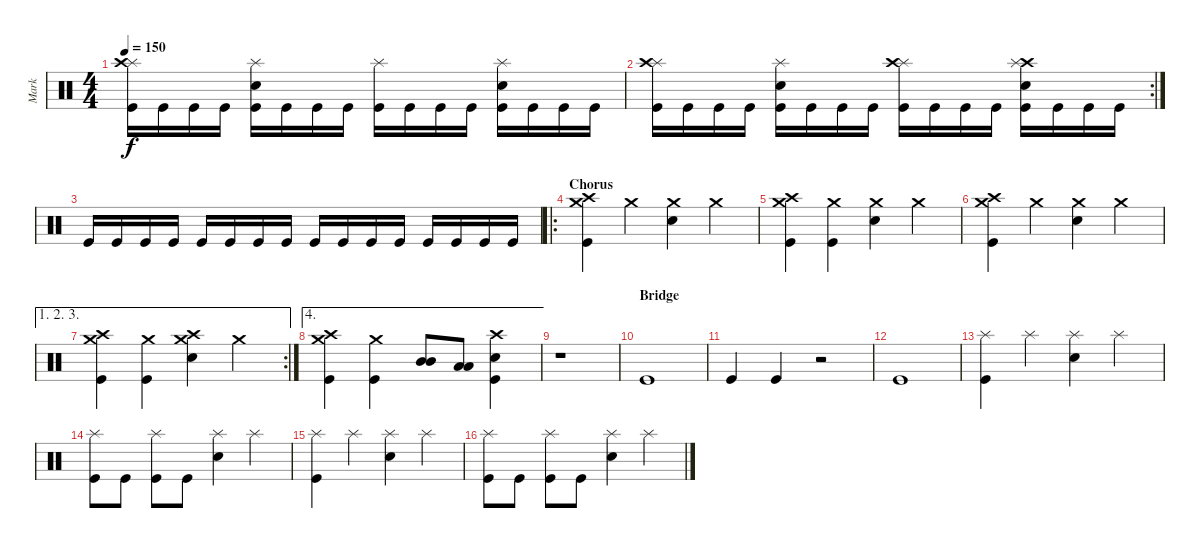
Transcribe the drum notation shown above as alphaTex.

\track ("Mark" "Mark") {instrument percussion}
\staff {score}
\articulation defaults
\ts (4 4)
\tempo 150
\clef neutral
\ks c
("Splash (hit)" "Crash high (hit)" "Kick (hit)").16{dy f} "Kick (hit)".16 "Kick (hit)".16 "Kick (hit)".16 ("Splash (hit)" "Electric Snare (hit)" "Kick (hit)").16 "Kick (hit)".16 "Kick (hit)".16 "Kick (hit)".16 ("Splash (hit)" "Kick (hit)").16 "Kick (hit)".16 "Kick (hit)".16 "Kick (hit)".16 ("Splash (hit)" "Electric Snare (hit)" "Kick (hit)").16 "Kick (hit)".16 "Kick (hit)".16 "Kick (hit)".16 |
\rc 2
("Splash (hit)" "Crash high (hit)" "Kick (hit)").16 "Kick (hit)".16 "Kick (hit)".16 "Kick (hit)".16 ("Splash (hit)" "Electric Snare (hit)" "Kick (hit)").16 "Kick (hit)".16 "Kick (hit)".16 "Kick (hit)".16 ("Splash (hit)" "Crash high (hit)" "Kick (hit)").16 "Kick (hit)".16 "Kick (hit)".16 "Kick (hit)".16 ("Crash high (hit)" "Splash (hit)" "Electric Snare (hit)" "Kick (hit)").16 "Kick (hit)".16 "Kick (hit)".16 "Kick (hit)".16 |
"Kick (hit)".16 "Kick (hit)".16 "Kick (hit)".16 "Kick (hit)".16 "Kick (hit)".16 "Kick (hit)".16 "Kick (hit)".16 "Kick (hit)".16 "Kick (hit)".16 "Kick (hit)".16 "Kick (hit)".16 "Kick (hit)".16 "Kick (hit)".16 "Kick (hit)".16 "Kick (hit)".16 "Kick (hit)".16 |
\ro
\section ("" "Chorus")
("Crash high (hit)" "Crash medium (hit)" "Kick (hit)").4 "Crash medium (hit)".4 ("Crash medium (hit)" "Electric Snare (hit)").4 "Crash medium (hit)".4 |
("Crash high (hit)" "Crash medium (hit)" "Kick (hit)").4 ("Crash medium (hit)" "Kick (hit)").4 ("Crash medium (hit)" "Electric Snare (hit)").4 "Crash medium (hit)".4 |
("Crash high (hit)" "Crash medium (hit)" "Kick (hit)").4 "Crash medium (hit)".4 ("Crash medium (hit)" "Electric Snare (hit)").4 "Crash medium (hit)".4 |
\ae (1 2 3)
\rc 2
("Crash high (hit)" "Crash medium (hit)" "Kick (hit)").4 ("Crash medium (hit)" "Kick (hit)").4 ("Crash high (hit)" "Crash medium (hit)" "Electric Snare (hit)").4 "Crash medium (hit)".4 |
\ae 4
("Crash high (hit)" "Crash medium (hit)" "Kick (hit)").4 ("Crash medium (hit)" "Kick (hit)").4 ("Mid Tom (hit)" "Mid Tom (hit)").8 ("Low Tom (hit)" "Low Tom (hit)").8 ("Crash high (hit)" "Kick (hit)" "Electric Snare (hit)").4 |
r.1 |
\section ("" "Bridge")
"Kick (hit)".1 |
"Kick (hit)".4 "Kick (hit)".4 r.2 |
"Kick (hit)".1 |
("Splash (hit)" "Kick (hit)").4 "Splash (hit)".4 ("Splash (hit)" "Electric Snare (hit)").4 "Splash (hit)".4 |
("Splash (hit)" "Kick (hit)").8 "Kick (hit)".8 ("Splash (hit)" "Kick (hit)").8 "Kick (hit)".8 ("Splash (hit)" "Electric Snare (hit)").4 "Splash (hit)".4 |
("Splash (hit)" "Kick (hit)").4 "Splash (hit)".4 ("Splash (hit)" "Electric Snare (hit)").4 "Splash (hit)".4 |
("Splash (hit)" "Kick (hit)").8 "Kick (hit)".8 ("Splash (hit)" "Kick (hit)").8 "Kick (hit)".8 ("Splash (hit)" "Electric Snare (hit)").4 "Splash (hit)".4
